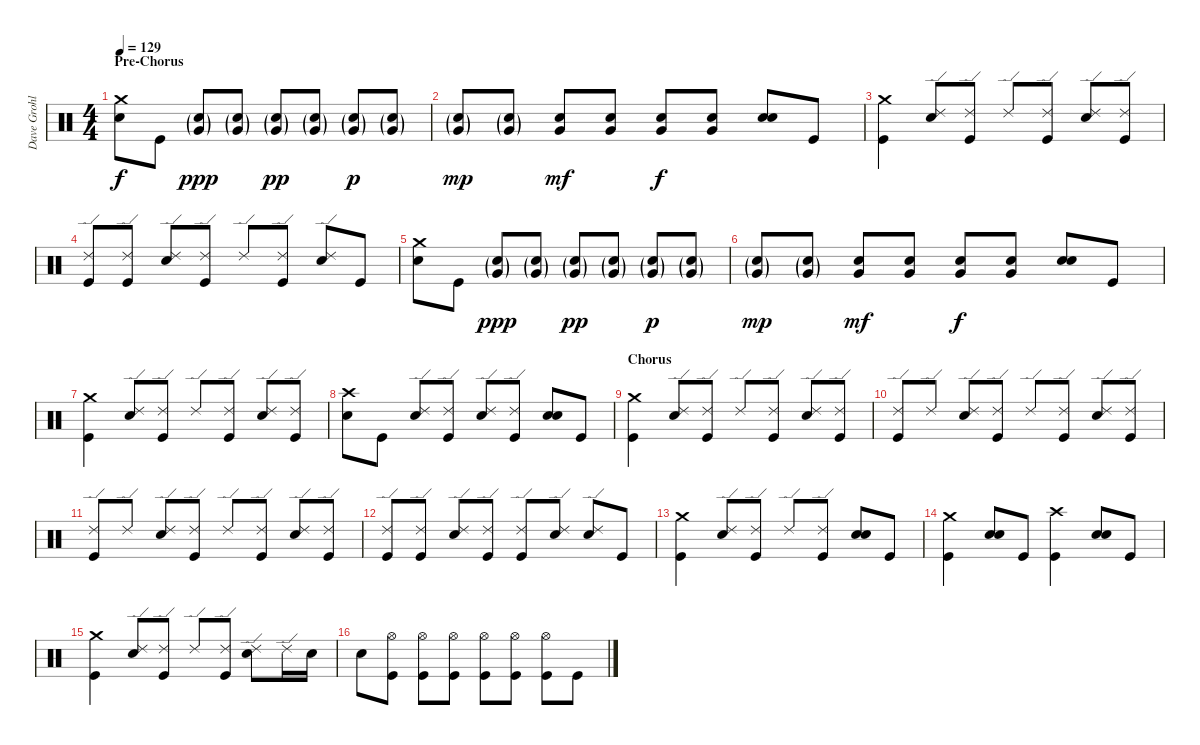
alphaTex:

\track ("Dave Grohl" "Dave Grohl") {instrument percussion}
\staff {score}
\articulation defaults
\ts (4 4)
\section ("" "Pre-Chorus")
\tempo 129
\clef neutral
\ks c
("Crash medium (hit)" "Electric Snare (hit)").8{dy f} "Kick (hit)".8 ("Electric Snare (hit)"{g} "Very Low Tom (hit)"{g}).8{dy ppp} ("Electric Snare (hit)"{g} "Very Low Tom (hit)"{g}).8 ("Electric Snare (hit)"{g} "Very Low Tom (hit)"{g}).8{dy pp} ("Electric Snare (hit)"{g} "Very Low Tom (hit)"{g}).8 ("Electric Snare (hit)"{g} "Very Low Tom (hit)"{g}).8{dy p} ("Electric Snare (hit)"{g} "Very Low Tom (hit)"{g}).8 |
("Electric Snare (hit)"{g} "Very Low Tom (hit)"{g}).8{dy mp} ("Electric Snare (hit)"{g} "Very Low Tom (hit)"{g}).8 ("Electric Snare (hit)" "Very Low Tom (hit)").8{dy mf} ("Electric Snare (hit)" "Very Low Tom (hit)").8 ("Electric Snare (hit)" "Very Low Tom (hit)").8{dy f} ("Electric Snare (hit)" "Very Low Tom (hit)").8 ("Electric Snare (hit)" "Electric Snare (hit)").8{bd 120} "Kick (hit)".8 |
("Crash medium (hit)" "Kick (hit)").4 ("Ride (edge) 2" "Electric Snare (hit)").8 ("Ride (edge) 2" "Kick (hit)").8 "Ride (edge) 2".8 ("Ride (edge) 2" "Kick (hit)").8 ("Ride (edge) 2" "Electric Snare (hit)").8 ("Ride (edge) 2" "Kick (hit)").8 |
("Ride (edge) 2" "Kick (hit)").8 ("Ride (edge) 2" "Kick (hit)").8 ("Ride (edge) 2" "Electric Snare (hit)").8 ("Ride (edge) 2" "Kick (hit)").8 "Ride (edge) 2".8 ("Ride (edge) 2" "Kick (hit)").8 ("Ride (edge) 2" "Electric Snare (hit)").8 "Kick (hit)".8 |
("Crash medium (hit)" "Electric Snare (hit)").8 "Kick (hit)".8 ("Electric Snare (hit)"{g} "Very Low Tom (hit)"{g}).8{dy ppp} ("Electric Snare (hit)"{g} "Very Low Tom (hit)"{g}).8 ("Electric Snare (hit)"{g} "Very Low Tom (hit)"{g}).8{dy pp} ("Electric Snare (hit)"{g} "Very Low Tom (hit)"{g}).8 ("Electric Snare (hit)"{g} "Very Low Tom (hit)"{g}).8{dy p} ("Electric Snare (hit)"{g} "Very Low Tom (hit)"{g}).8 |
("Electric Snare (hit)"{g} "Very Low Tom (hit)"{g}).8{dy mp} ("Electric Snare (hit)"{g} "Very Low Tom (hit)"{g}).8 ("Electric Snare (hit)" "Very Low Tom (hit)").8{dy mf} ("Electric Snare (hit)" "Very Low Tom (hit)").8 ("Electric Snare (hit)" "Very Low Tom (hit)").8{dy f} ("Electric Snare (hit)" "Very Low Tom (hit)").8 ("Electric Snare (hit)" "Electric Snare (hit)").8{bd 120} "Kick (hit)".8 |
("Crash medium (hit)" "Kick (hit)").4 ("Ride (edge) 2" "Electric Snare (hit)").8 ("Ride (edge) 2" "Kick (hit)").8 "Ride (edge) 2".8 ("Ride (edge) 2" "Kick (hit)").8 ("Ride (edge) 2" "Electric Snare (hit)").8 ("Ride (edge) 2" "Kick (hit)").8 |
("Crash high (hit)" "Electric Snare (hit)").8 "Kick (hit)".8 ("Ride (edge) 2" "Electric Snare (hit)").8 ("Ride (edge) 2" "Kick (hit)").8 ("Ride (edge) 2" "Electric Snare (hit)").8 ("Ride (edge) 2" "Kick (hit)").8 ("Electric Snare (hit)" "Electric Snare (hit)").8{bd 120} "Kick (hit)".8 |
\section ("" "Chorus")
("Crash medium (hit)" "Kick (hit)").4 ("Ride (edge) 2" "Electric Snare (hit)").8 ("Ride (edge) 2" "Kick (hit)").8 "Ride (edge) 2".8 ("Ride (edge) 2" "Kick (hit)").8 ("Ride (edge) 2" "Electric Snare (hit)").8 ("Ride (edge) 2" "Kick (hit)").8 |
("Ride (edge) 2" "Kick (hit)").8 "Ride (edge) 2".8 ("Ride (edge) 2" "Electric Snare (hit)").8 ("Ride (edge) 2" "Kick (hit)").8 "Ride (edge) 2".8 ("Ride (edge) 2" "Kick (hit)").8 ("Ride (edge) 2" "Electric Snare (hit)").8 ("Ride (edge) 2" "Kick (hit)").8 |
("Ride (edge) 2" "Kick (hit)").8 "Ride (edge) 2".8 ("Ride (edge) 2" "Electric Snare (hit)").8 ("Ride (edge) 2" "Kick (hit)").8 "Ride (edge) 2".8 ("Ride (edge) 2" "Kick (hit)").8 ("Ride (edge) 2" "Electric Snare (hit)").8 ("Ride (edge) 2" "Kick (hit)").8 |
("Ride (edge) 2" "Kick (hit)").8 ("Ride (edge) 2" "Kick (hit)").8 ("Ride (edge) 2" "Electric Snare (hit)").8 ("Ride (edge) 2" "Kick (hit)").8 ("Ride (edge) 2" "Kick (hit)").8 ("Ride (edge) 2" "Electric Snare (hit)").8 ("Ride (edge) 2" "Electric Snare (hit)").8 "Kick (hit)".8 |
("Crash medium (hit)" "Kick (hit)").4 ("Ride (edge) 2" "Electric Snare (hit)").8 ("Ride (edge) 2" "Kick (hit)").8 "Ride (edge) 2".8 ("Ride (edge) 2" "Kick (hit)").8 ("Electric Snare (hit)" "Electric Snare (hit)").8{bd 120} "Kick (hit)".8 |
("Crash medium (hit)" "Kick (hit)").4 ("Electric Snare (hit)" "Electric Snare (hit)").8{bd 120} "Kick (hit)".8 ("Crash high (hit)" "Kick (hit)").4 ("Electric Snare (hit)" "Electric Snare (hit)").8{bd 120} "Kick (hit)".8 |
("Crash medium (hit)" "Kick (hit)").4 ("Ride (edge) 2" "Electric Snare (hit)").8 ("Ride (edge) 2" "Kick (hit)").8 "Ride (edge) 2".8 ("Ride (edge) 2" "Kick (hit)").8 ("Ride (edge) 2" "Electric Snare (hit)").8 "Ride (edge) 2".16 "Electric Snare (hit)".16 |
"Electric Snare (hit)".8 ("Hi-Hat (open)" "Kick (hit)").8 ("Hi-Hat (open)" "Kick (hit)").8 ("Hi-Hat (open)" "Kick (hit)").8 ("Hi-Hat (open)" "Kick (hit)").8 ("Hi-Hat (open)" "Kick (hit)").8 ("Hi-Hat (open)" "Kick (hit)").8 "Kick (hit)".8
